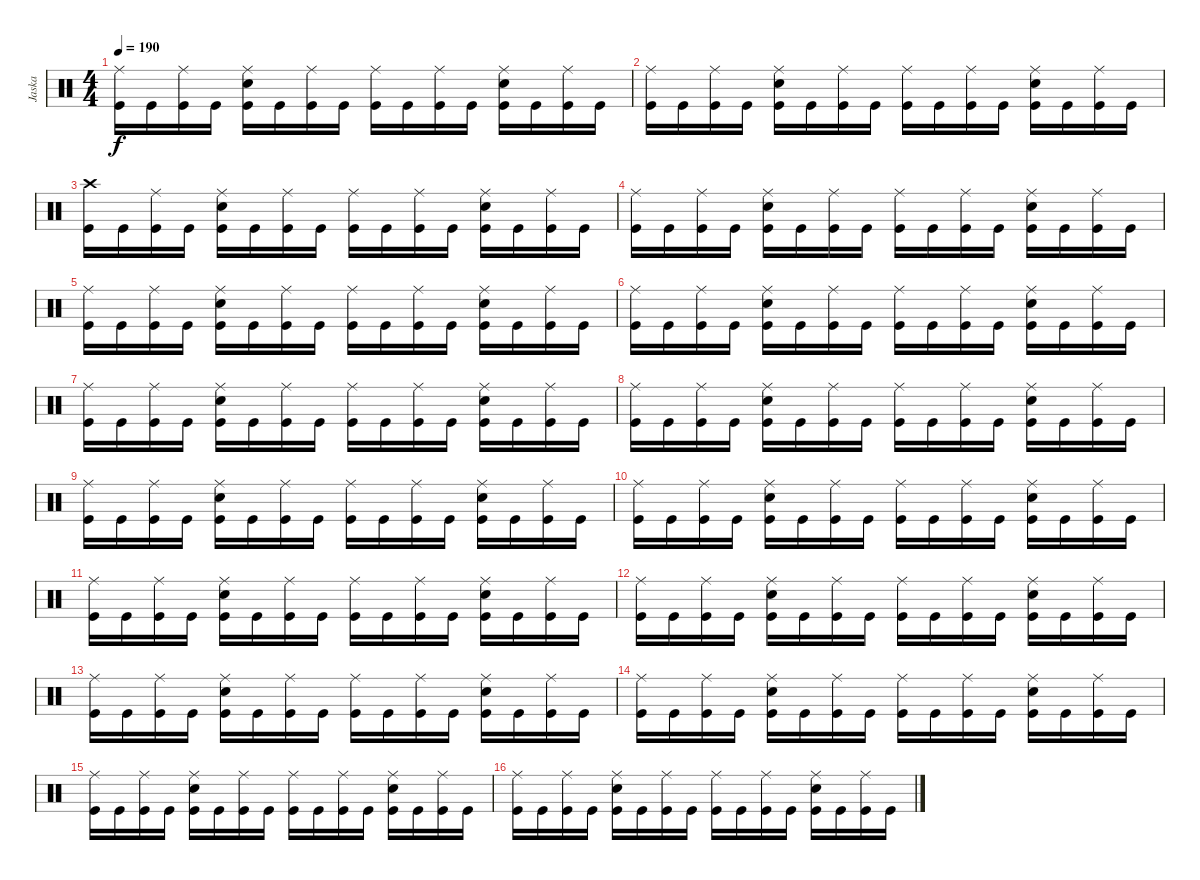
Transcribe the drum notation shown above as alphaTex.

\track ("Jaska" "Jaska") {instrument percussion}
\staff {score}
\articulation defaults
\ts (4 4)
\tempo 190
\clef neutral
\ks c
("Ride (middle)" "Kick (hit)").16{dy f} "Kick (hit)".16 ("Ride (middle)" "Kick (hit)").16 "Kick (hit)".16 ("Ride (middle)" "Snare (hit) 2" "Kick (hit)").16 "Kick (hit)".16 ("Ride (middle)" "Kick (hit)").16 "Kick (hit)".16 ("Ride (middle)" "Kick (hit)").16 "Kick (hit)".16 ("Ride (middle)" "Kick (hit)").16 "Kick (hit)".16 ("Ride (middle)" "Snare (hit) 2" "Kick (hit)").16 "Kick (hit)".16 ("Ride (middle)" "Kick (hit)").16 "Kick (hit)".16 |
("Ride (middle)" "Kick (hit)").16 "Kick (hit)".16 ("Ride (middle)" "Kick (hit)").16 "Kick (hit)".16 ("Ride (middle)" "Snare (hit) 2" "Kick (hit)").16 "Kick (hit)".16 ("Ride (middle)" "Kick (hit)").16 "Kick (hit)".16 ("Ride (middle)" "Kick (hit)").16 "Kick (hit)".16 ("Ride (middle)" "Kick (hit)").16 "Kick (hit)".16 ("Ride (middle)" "Snare (hit) 2" "Kick (hit)").16 "Kick (hit)".16 ("Ride (middle)" "Kick (hit)").16 "Kick (hit)".16 |
("Crash high (hit)" "Kick (hit)").16 "Kick (hit)".16 ("Ride (middle)" "Kick (hit)").16 "Kick (hit)".16 ("Ride (middle)" "Snare (hit) 2" "Kick (hit)").16 "Kick (hit)".16 ("Ride (middle)" "Kick (hit)").16 "Kick (hit)".16 ("Ride (middle)" "Kick (hit)").16 "Kick (hit)".16 ("Ride (middle)" "Kick (hit)").16 "Kick (hit)".16 ("Ride (middle)" "Snare (hit) 2" "Kick (hit)").16 "Kick (hit)".16 ("Ride (middle)" "Kick (hit)").16 "Kick (hit)".16 |
("Ride (middle)" "Kick (hit)").16 "Kick (hit)".16 ("Ride (middle)" "Kick (hit)").16 "Kick (hit)".16 ("Ride (middle)" "Snare (hit) 2" "Kick (hit)").16 "Kick (hit)".16 ("Ride (middle)" "Kick (hit)").16 "Kick (hit)".16 ("Ride (middle)" "Kick (hit)").16 "Kick (hit)".16 ("Ride (middle)" "Kick (hit)").16 "Kick (hit)".16 ("Ride (middle)" "Snare (hit) 2" "Kick (hit)").16 "Kick (hit)".16 ("Ride (middle)" "Kick (hit)").16 "Kick (hit)".16 |
("Ride (middle)" "Kick (hit)").16 "Kick (hit)".16 ("Ride (middle)" "Kick (hit)").16 "Kick (hit)".16 ("Ride (middle)" "Snare (hit) 2" "Kick (hit)").16 "Kick (hit)".16 ("Ride (middle)" "Kick (hit)").16 "Kick (hit)".16 ("Ride (middle)" "Kick (hit)").16 "Kick (hit)".16 ("Ride (middle)" "Kick (hit)").16 "Kick (hit)".16 ("Ride (middle)" "Snare (hit) 2" "Kick (hit)").16 "Kick (hit)".16 ("Ride (middle)" "Kick (hit)").16 "Kick (hit)".16 |
("Ride (middle)" "Kick (hit)").16 "Kick (hit)".16 ("Ride (middle)" "Kick (hit)").16 "Kick (hit)".16 ("Ride (middle)" "Snare (hit) 2" "Kick (hit)").16 "Kick (hit)".16 ("Ride (middle)" "Kick (hit)").16 "Kick (hit)".16 ("Ride (middle)" "Kick (hit)").16 "Kick (hit)".16 ("Ride (middle)" "Kick (hit)").16 "Kick (hit)".16 ("Ride (middle)" "Snare (hit) 2" "Kick (hit)").16 "Kick (hit)".16 ("Ride (middle)" "Kick (hit)").16 "Kick (hit)".16 |
("Ride (middle)" "Kick (hit)").16 "Kick (hit)".16 ("Ride (middle)" "Kick (hit)").16 "Kick (hit)".16 ("Ride (middle)" "Snare (hit) 2" "Kick (hit)").16 "Kick (hit)".16 ("Ride (middle)" "Kick (hit)").16 "Kick (hit)".16 ("Ride (middle)" "Kick (hit)").16 "Kick (hit)".16 ("Ride (middle)" "Kick (hit)").16 "Kick (hit)".16 ("Ride (middle)" "Snare (hit) 2" "Kick (hit)").16 "Kick (hit)".16 ("Ride (middle)" "Kick (hit)").16 "Kick (hit)".16 |
("Ride (middle)" "Kick (hit)").16 "Kick (hit)".16 ("Ride (middle)" "Kick (hit)").16 "Kick (hit)".16 ("Ride (middle)" "Snare (hit) 2" "Kick (hit)").16 "Kick (hit)".16 ("Ride (middle)" "Kick (hit)").16 "Kick (hit)".16 ("Ride (middle)" "Kick (hit)").16 "Kick (hit)".16 ("Ride (middle)" "Kick (hit)").16 "Kick (hit)".16 ("Ride (middle)" "Snare (hit) 2" "Kick (hit)").16 "Kick (hit)".16 ("Ride (middle)" "Kick (hit)").16 "Kick (hit)".16 |
("Ride (middle)" "Kick (hit)").16 "Kick (hit)".16 ("Ride (middle)" "Kick (hit)").16 "Kick (hit)".16 ("Ride (middle)" "Snare (hit) 2" "Kick (hit)").16 "Kick (hit)".16 ("Ride (middle)" "Kick (hit)").16 "Kick (hit)".16 ("Ride (middle)" "Kick (hit)").16 "Kick (hit)".16 ("Ride (middle)" "Kick (hit)").16 "Kick (hit)".16 ("Ride (middle)" "Snare (hit) 2" "Kick (hit)").16 "Kick (hit)".16 ("Ride (middle)" "Kick (hit)").16 "Kick (hit)".16 |
("Ride (middle)" "Kick (hit)").16 "Kick (hit)".16 ("Ride (middle)" "Kick (hit)").16 "Kick (hit)".16 ("Ride (middle)" "Snare (hit) 2" "Kick (hit)").16 "Kick (hit)".16 ("Ride (middle)" "Kick (hit)").16 "Kick (hit)".16 ("Ride (middle)" "Kick (hit)").16 "Kick (hit)".16 ("Ride (middle)" "Kick (hit)").16 "Kick (hit)".16 ("Ride (middle)" "Snare (hit) 2" "Kick (hit)").16 "Kick (hit)".16 ("Ride (middle)" "Kick (hit)").16 "Kick (hit)".16 |
("Ride (middle)" "Kick (hit)").16 "Kick (hit)".16 ("Ride (middle)" "Kick (hit)").16 "Kick (hit)".16 ("Ride (middle)" "Snare (hit) 2" "Kick (hit)").16 "Kick (hit)".16 ("Ride (middle)" "Kick (hit)").16 "Kick (hit)".16 ("Ride (middle)" "Kick (hit)").16 "Kick (hit)".16 ("Ride (middle)" "Kick (hit)").16 "Kick (hit)".16 ("Ride (middle)" "Snare (hit) 2" "Kick (hit)").16 "Kick (hit)".16 ("Ride (middle)" "Kick (hit)").16 "Kick (hit)".16 |
("Ride (middle)" "Kick (hit)").16 "Kick (hit)".16 ("Ride (middle)" "Kick (hit)").16 "Kick (hit)".16 ("Ride (middle)" "Snare (hit) 2" "Kick (hit)").16 "Kick (hit)".16 ("Ride (middle)" "Kick (hit)").16 "Kick (hit)".16 ("Ride (middle)" "Kick (hit)").16 "Kick (hit)".16 ("Ride (middle)" "Kick (hit)").16 "Kick (hit)".16 ("Ride (middle)" "Snare (hit) 2" "Kick (hit)").16 "Kick (hit)".16 ("Ride (middle)" "Kick (hit)").16 "Kick (hit)".16 |
("Ride (middle)" "Kick (hit)").16 "Kick (hit)".16 ("Ride (middle)" "Kick (hit)").16 "Kick (hit)".16 ("Ride (middle)" "Snare (hit) 2" "Kick (hit)").16 "Kick (hit)".16 ("Ride (middle)" "Kick (hit)").16 "Kick (hit)".16 ("Ride (middle)" "Kick (hit)").16 "Kick (hit)".16 ("Ride (middle)" "Kick (hit)").16 "Kick (hit)".16 ("Ride (middle)" "Snare (hit) 2" "Kick (hit)").16 "Kick (hit)".16 ("Ride (middle)" "Kick (hit)").16 "Kick (hit)".16 |
("Ride (middle)" "Kick (hit)").16 "Kick (hit)".16 ("Ride (middle)" "Kick (hit)").16 "Kick (hit)".16 ("Ride (middle)" "Snare (hit) 2" "Kick (hit)").16 "Kick (hit)".16 ("Ride (middle)" "Kick (hit)").16 "Kick (hit)".16 ("Ride (middle)" "Kick (hit)").16 "Kick (hit)".16 ("Ride (middle)" "Kick (hit)").16 "Kick (hit)".16 ("Ride (middle)" "Snare (hit) 2" "Kick (hit)").16 "Kick (hit)".16 ("Ride (middle)" "Kick (hit)").16 "Kick (hit)".16 |
("Ride (middle)" "Kick (hit)").16 "Kick (hit)".16 ("Ride (middle)" "Kick (hit)").16 "Kick (hit)".16 ("Ride (middle)" "Snare (hit) 2" "Kick (hit)").16 "Kick (hit)".16 ("Ride (middle)" "Kick (hit)").16 "Kick (hit)".16 ("Ride (middle)" "Kick (hit)").16 "Kick (hit)".16 ("Ride (middle)" "Kick (hit)").16 "Kick (hit)".16 ("Ride (middle)" "Snare (hit) 2" "Kick (hit)").16 "Kick (hit)".16 ("Ride (middle)" "Kick (hit)").16 "Kick (hit)".16 |
("Ride (middle)" "Kick (hit)").16 "Kick (hit)".16 ("Ride (middle)" "Kick (hit)").16 "Kick (hit)".16 ("Ride (middle)" "Snare (hit) 2" "Kick (hit)").16 "Kick (hit)".16 ("Ride (middle)" "Kick (hit)").16 "Kick (hit)".16 ("Ride (middle)" "Kick (hit)").16 "Kick (hit)".16 ("Ride (middle)" "Kick (hit)").16 "Kick (hit)".16 ("Ride (middle)" "Snare (hit) 2" "Kick (hit)").16 "Kick (hit)".16 ("Ride (middle)" "Kick (hit)").16 "Kick (hit)".16
